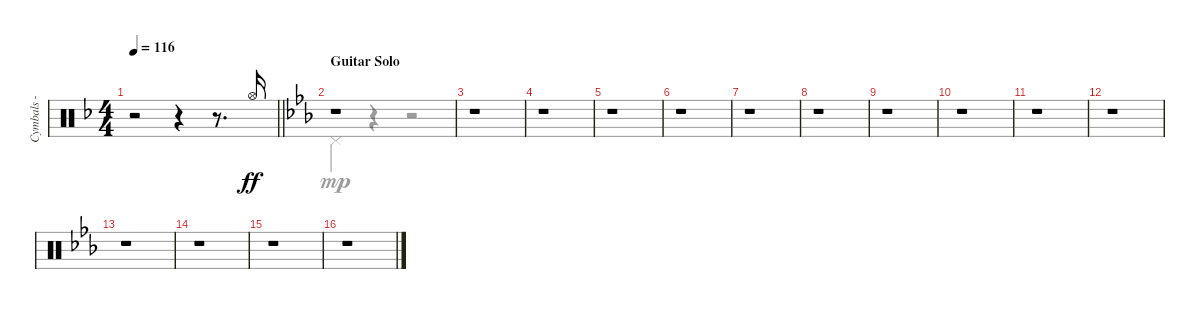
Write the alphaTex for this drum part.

\track ("Cymbals - hi-hat" "Cymbals - ") {instrument percussion}
\staff {score}
\articulation defaults
\voice
\ts (4 4)
\tempo 116
\clef neutral
\barLineRight lightlight
\ks f
r.2{dy ff} r.4 r.8{d} "Hi-Hat (open)".16{beam Up} |
\section ("" "Guitar Solo")
\ks eb
r.1 |
r.1 |
r.1 |
r.1 |
r.1 |
r.1 |
r.1 |
r.1 |
r.1 |
r.1 |
r.1 |
r.1 |
r.1 |
r.1 |
r.1
\voice
\clef neutral
\ottava regular
\simile none
\barLineRight lightlight
\ks f
|
\ks eb "Pedal Hi-Hat (hit)".4{dy mp}
r.4 r.2 |
|
|
|
|
|
|
|
|
|
|
|
|
|
